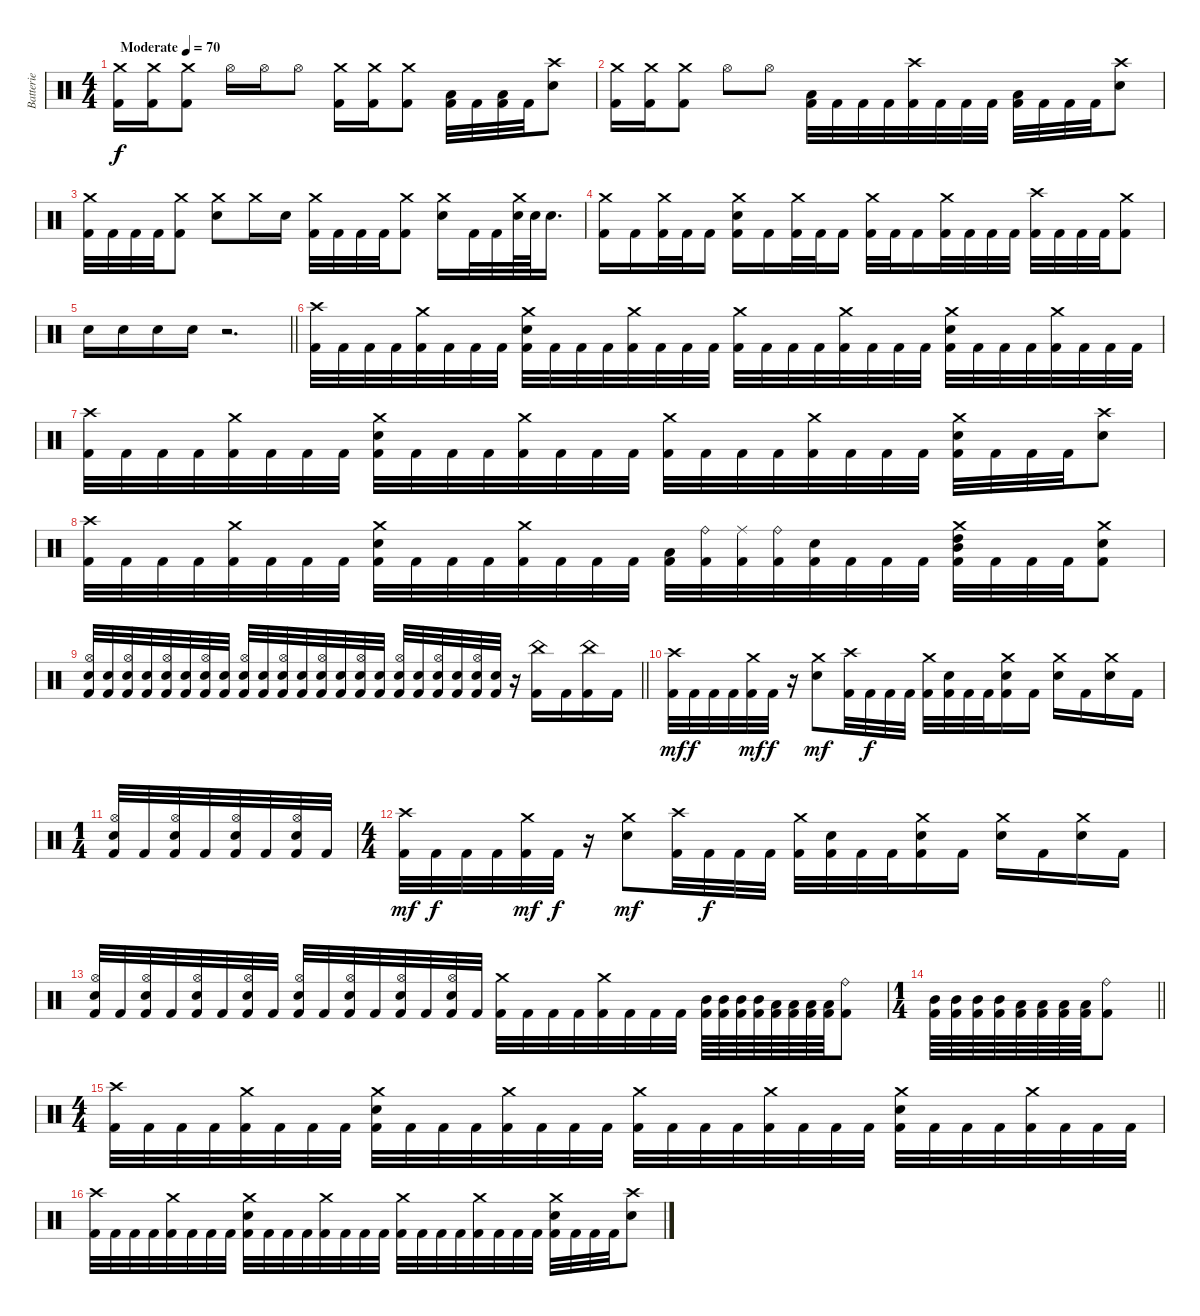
\track ("Batterie" "Batterie") {instrument percussion}
\staff {score}
\articulation defaults
\ts (4 4)
\tempo (70 "Moderate")
\clef neutral
\ks c
("Crash medium (hit)" "Kick (hit) 2").16{dy f} ("Crash medium (hit)" "Kick (hit) 2").16 ("Crash medium (hit)" "Kick (hit) 2").8 "Hi-Hat (open)".16 "Hi-Hat (open)".16 "Hi-Hat (open)".8 ("Crash medium (hit)" "Kick (hit) 2").16 ("Crash medium (hit)" "Kick (hit) 2").16 ("Crash medium (hit)" "Kick (hit) 2").8 ("Low Tom (hit)" "Kick (hit) 2").32 "Kick (hit) 2".32 ("Low Tom (hit)" "Kick (hit) 2").32 "Kick (hit) 2".32 ("Crash high (hit)" "Snare (hit) 2").8 |
("Crash medium (hit)" "Kick (hit) 2").16 ("Crash medium (hit)" "Kick (hit) 2").16 ("Crash medium (hit)" "Kick (hit) 2").8 "Hi-Hat (open)".8 "Hi-Hat (open)".8 ("Low Tom (hit)" "Kick (hit) 2").32 "Kick (hit) 2".32 "Kick (hit) 2".32 "Kick (hit) 2".32 ("Crash high (hit)" "Kick (hit) 2").32 "Kick (hit) 2".32 "Kick (hit) 2".32 "Kick (hit) 2".32 ("Low Tom (hit)" "Kick (hit) 2").32 "Kick (hit) 2".32 "Kick (hit) 2".32 "Kick (hit) 2".32 ("Crash high (hit)" "Snare (hit) 2").8 |
("Crash medium (hit)" "Kick (hit) 2").32 "Kick (hit) 2".32 "Kick (hit) 2".32 "Kick (hit) 2".32 ("Crash medium (hit)" "Kick (hit) 2").8 ("Crash medium (hit)" "Snare (hit) 2").8 "Crash medium (hit)".16 "Snare (hit) 2".16 ("Crash medium (hit)" "Kick (hit) 2").32 "Kick (hit) 2".32 "Kick (hit) 2".32 "Kick (hit) 2".32 ("Crash medium (hit)" "Kick (hit) 2").8 ("Crash medium (hit)" "Snare (hit) 2").16 "Kick (hit) 2".32 "Kick (hit) 2".32 ("Crash medium (hit)" "Snare (hit) 2").64 "Snare (hit) 2".64 "Snare (hit) 2".16{d} |
("Crash medium (hit)" "Kick (hit) 2").16 "Kick (hit) 2".16 ("Crash medium (hit)" "Kick (hit) 2").32 "Kick (hit) 2".32 "Kick (hit) 2".16 ("Crash medium (hit)" "Snare (hit) 2" "Kick (hit) 2").16 "Kick (hit) 2".16 ("Crash medium (hit)" "Kick (hit) 2").32 "Kick (hit) 2".32 "Kick (hit) 2".16 ("Crash medium (hit)" "Kick (hit) 2").32 "Kick (hit) 2".32 "Kick (hit) 2".16 ("Crash medium (hit)" "Kick (hit) 2").32 "Kick (hit) 2".32 "Kick (hit) 2".32 "Kick (hit) 2".32 ("Crash high (hit)" "Kick (hit) 2").32 "Kick (hit) 2".32 "Kick (hit) 2".32 "Kick (hit) 2".32 ("Crash medium (hit)" "Kick (hit) 2").8 |
\barLineRight lightlight "Snare (hit) 2".16 "Snare (hit) 2".16 "Snare (hit) 2".16 "Snare (hit) 2".16
r.2{d} |
\section ("" "")
("Crash high (hit)" "Kick (hit) 2").32 "Kick (hit) 2".32 "Kick (hit) 2".32 "Kick (hit) 2".32 ("Crash medium (hit)" "Kick (hit) 2").32 "Kick (hit) 2".32 "Kick (hit) 2".32 "Kick (hit) 2".32 ("Crash medium (hit)" "Snare (hit) 2" "Kick (hit) 2").32 "Kick (hit) 2".32 "Kick (hit) 2".32 "Kick (hit) 2".32 ("Crash medium (hit)" "Kick (hit) 2").32 "Kick (hit) 2".32 "Kick (hit) 2".32 "Kick (hit) 2".32 ("Crash medium (hit)" "Kick (hit) 2").32 "Kick (hit) 2".32 "Kick (hit) 2".32 "Kick (hit) 2".32 ("Crash medium (hit)" "Kick (hit) 2").32 "Kick (hit) 2".32 "Kick (hit) 2".32 "Kick (hit) 2".32 ("Crash medium (hit)" "Snare (hit) 2" "Kick (hit) 2").32 "Kick (hit) 2".32 "Kick (hit) 2".32 "Kick (hit) 2".32 ("Crash medium (hit)" "Kick (hit) 2").32 "Kick (hit) 2".32 "Kick (hit) 2".32 "Kick (hit) 2".32 |
("Crash high (hit)" "Kick (hit) 2").32 "Kick (hit) 2".32 "Kick (hit) 2".32 "Kick (hit) 2".32 ("Crash medium (hit)" "Kick (hit) 2").32 "Kick (hit) 2".32 "Kick (hit) 2".32 "Kick (hit) 2".32 ("Crash medium (hit)" "Snare (hit) 2" "Kick (hit) 2").32 "Kick (hit) 2".32 "Kick (hit) 2".32 "Kick (hit) 2".32 ("Crash medium (hit)" "Kick (hit) 2").32 "Kick (hit) 2".32 "Kick (hit) 2".32 "Kick (hit) 2".32 ("Crash medium (hit)" "Kick (hit) 2").32 "Kick (hit) 2".32 "Kick (hit) 2".32 "Kick (hit) 2".32 ("Crash medium (hit)" "Kick (hit) 2").32 "Kick (hit) 2".32 "Kick (hit) 2".32 "Kick (hit) 2".32 ("Crash medium (hit)" "Snare (hit) 2" "Kick (hit) 2").32 "Kick (hit) 2".32 "Kick (hit) 2".32 "Kick (hit) 2".32 ("Crash high (hit)" "Snare (hit) 2").8 |
("Crash high (hit)" "Kick (hit) 2").32 "Kick (hit) 2".32 "Kick (hit) 2".32 "Kick (hit) 2".32 ("Crash medium (hit)" "Kick (hit) 2").32 "Kick (hit) 2".32 "Kick (hit) 2".32 "Kick (hit) 2".32 ("Crash medium (hit)" "Snare (hit) 2" "Kick (hit) 2").32 "Kick (hit) 2".32 "Kick (hit) 2".32 "Kick (hit) 2".32 ("Crash medium (hit)" "Kick (hit) 2").32 "Kick (hit) 2".32 "Kick (hit) 2".32 "Kick (hit) 2".32 ("Low Tom (hit)" "Kick (hit) 2").32 ("Ride (bell)" "Kick (hit) 2").32 ("Ride (middle)" "Kick (hit) 2").32 ("Ride (bell)" "Kick (hit) 2").32 ("Snare (hit) 2" "Kick (hit) 2").32 "Kick (hit) 2".32 "Kick (hit) 2".32 "Kick (hit) 2".32 ("Crash medium (hit)" "High Tom (hit)" "Mid Tom (hit)" "Kick (hit) 2").32 "Kick (hit) 2".32 "Kick (hit) 2".32 "Kick (hit) 2".32 ("Crash medium (hit)" "Snare (hit) 2" "Kick (hit) 2").8 |
\barLineRight lightlight
("Hi-Hat (open)" "Snare (hit) 2" "Kick (hit) 2").32 ("Snare (hit) 2" "Kick (hit) 2").32 ("Hi-Hat (open)" "Snare (hit) 2" "Kick (hit) 2").32 ("Snare (hit) 2" "Kick (hit) 2").32 ("Hi-Hat (open)" "Snare (hit) 2" "Kick (hit) 2").32 ("Snare (hit) 2" "Kick (hit) 2").32 ("Hi-Hat (open)" "Snare (hit) 2" "Kick (hit) 2").32 ("Snare (hit) 2" "Kick (hit) 2").32 ("Hi-Hat (open)" "Snare (hit) 2" "Kick (hit) 2").32 ("Snare (hit) 2" "Kick (hit) 2").32 ("Hi-Hat (open)" "Snare (hit) 2" "Kick (hit) 2").32 ("Snare (hit) 2" "Kick (hit) 2").32 ("Hi-Hat (open)" "Snare (hit) 2" "Kick (hit) 2").32 ("Snare (hit) 2" "Kick (hit) 2").32 ("Hi-Hat (open)" "Snare (hit) 2" "Kick (hit) 2").32 ("Snare (hit) 2" "Kick (hit) 2").32 ("Hi-Hat (open)" "Snare (hit) 2" "Kick (hit) 2").32 ("Snare (hit) 2" "Kick (hit) 2").32 ("Hi-Hat (open)" "Snare (hit) 2" "Kick (hit) 2").32 ("Snare (hit) 2" "Kick (hit) 2").32 ("Hi-Hat (open)" "Snare (hit) 2" "Kick (hit) 2").32 ("Snare (hit) 2" "Kick (hit) 2").32 r.16 ("China (hit)" "Kick (hit) 2").16 "Kick (hit) 2".16 ("China (hit)" "Kick (hit) 2").16 "Kick (hit) 2".16 |
\section ("" "")
("Crash high (hit)" "Kick (hit) 2").32{dy mf} "Kick (hit) 2".32{dy f} "Kick (hit) 2".32 "Kick (hit) 2".32 ("Crash medium (hit)" "Kick (hit) 2").32{dy mf} "Kick (hit) 2".32{dy f} r.16 ("Crash medium (hit)" "Snare (hit) 2").8{dy mf} ("Crash high (hit)" "Kick (hit) 2").32 "Kick (hit) 2".32{dy f} "Kick (hit) 2".32 "Kick (hit) 2".32 ("Crash medium (hit)" "Kick (hit) 2").32 ("Snare (hit) 2" "Kick (hit) 2").32 "Kick (hit) 2".32 "Kick (hit) 2".32 ("Crash medium (hit)" "Snare (hit) 2" "Kick (hit) 2").16 "Kick (hit) 2".16 ("Crash medium (hit)" "Snare (hit) 2").16 "Kick (hit) 2".16 ("Crash medium (hit)" "Snare (hit) 2").16 "Kick (hit) 2".16 |
\ts (1 4)
("Hi-Hat (open)" "Snare (hit) 2" "Kick (hit) 2").32 "Kick (hit) 2".32 ("Hi-Hat (open)" "Snare (hit) 2" "Kick (hit) 2").32 "Kick (hit) 2".32 ("Hi-Hat (open)" "Snare (hit) 2" "Kick (hit) 2").32 "Kick (hit) 2".32 ("Hi-Hat (open)" "Snare (hit) 2" "Kick (hit) 2").32 "Kick (hit) 2".32 |
\ts (4 4)
("Crash high (hit)" "Kick (hit) 2").32{dy mf} "Kick (hit) 2".32{dy f} "Kick (hit) 2".32 "Kick (hit) 2".32 ("Crash medium (hit)" "Kick (hit) 2").32{dy mf} "Kick (hit) 2".32{dy f} r.16 ("Crash medium (hit)" "Snare (hit) 2").8{dy mf} ("Crash high (hit)" "Kick (hit) 2").32 "Kick (hit) 2".32{dy f} "Kick (hit) 2".32 "Kick (hit) 2".32 ("Crash medium (hit)" "Kick (hit) 2").32 ("Snare (hit) 2" "Kick (hit) 2").32 "Kick (hit) 2".32 "Kick (hit) 2".32 ("Crash medium (hit)" "Snare (hit) 2" "Kick (hit) 2").16 "Kick (hit) 2".16 ("Crash medium (hit)" "Snare (hit) 2").16 "Kick (hit) 2".16 ("Crash medium (hit)" "Snare (hit) 2").16 "Kick (hit) 2".16 |
("Hi-Hat (open)" "Snare (hit) 2" "Kick (hit) 2").32 "Kick (hit) 2".32 ("Hi-Hat (open)" "Snare (hit) 2" "Kick (hit) 2").32 "Kick (hit) 2".32 ("Hi-Hat (open)" "Snare (hit) 2" "Kick (hit) 2").32 "Kick (hit) 2".32 ("Hi-Hat (open)" "Snare (hit) 2" "Kick (hit) 2").32 "Kick (hit) 2".32 ("Hi-Hat (open)" "Snare (hit) 2" "Kick (hit) 2").32 "Kick (hit) 2".32 ("Hi-Hat (open)" "Snare (hit) 2" "Kick (hit) 2").32 "Kick (hit) 2".32 ("Hi-Hat (open)" "Snare (hit) 2" "Kick (hit) 2").32 "Kick (hit) 2".32 ("Hi-Hat (open)" "Snare (hit) 2" "Kick (hit) 2").32 "Kick (hit) 2".32 ("Crash medium (hit)" "Kick (hit) 2").32 "Kick (hit) 2".32 "Kick (hit) 2".32 "Kick (hit) 2".32 ("Crash medium (hit)" "Kick (hit) 2").32 "Kick (hit) 2".32 "Kick (hit) 2".32 "Kick (hit) 2".32 ("Mid Tom (hit)" "Kick (hit) 2").64 ("Mid Tom (hit)" "Kick (hit) 2").64 ("Mid Tom (hit)" "Kick (hit) 2").64 ("Mid Tom (hit)" "Kick (hit) 2").64 ("Low Tom (hit)" "Kick (hit) 2").64 ("Low Tom (hit)" "Kick (hit) 2").64 ("Low Tom (hit)" "Kick (hit) 2").64 ("Low Tom (hit)" "Kick (hit) 2").64 ("Ride (bell)" "Kick (hit) 2").8 |
\ts (1 4)
\barLineRight lightlight
("Mid Tom (hit)" "Kick (hit) 2").64 ("Mid Tom (hit)" "Kick (hit) 2").64 ("Mid Tom (hit)" "Kick (hit) 2").64 ("Mid Tom (hit)" "Kick (hit) 2").64 ("Low Tom (hit)" "Kick (hit) 2").64 ("Low Tom (hit)" "Kick (hit) 2").64 ("Low Tom (hit)" "Kick (hit) 2").64 ("Low Tom (hit)" "Kick (hit) 2").64 ("Ride (bell)" "Kick (hit) 2").8 |
\ts (4 4)
\section ("" "")
("Crash high (hit)" "Kick (hit) 2").32 "Kick (hit) 2".32 "Kick (hit) 2".32 "Kick (hit) 2".32 ("Crash medium (hit)" "Kick (hit) 2").32 "Kick (hit) 2".32 "Kick (hit) 2".32 "Kick (hit) 2".32 ("Crash medium (hit)" "Snare (hit) 2" "Kick (hit) 2").32 "Kick (hit) 2".32 "Kick (hit) 2".32 "Kick (hit) 2".32 ("Crash medium (hit)" "Kick (hit) 2").32 "Kick (hit) 2".32 "Kick (hit) 2".32 "Kick (hit) 2".32 ("Crash medium (hit)" "Kick (hit) 2").32 "Kick (hit) 2".32 "Kick (hit) 2".32 "Kick (hit) 2".32 ("Crash medium (hit)" "Kick (hit) 2").32 "Kick (hit) 2".32 "Kick (hit) 2".32 "Kick (hit) 2".32 ("Crash medium (hit)" "Snare (hit) 2" "Kick (hit) 2").32 "Kick (hit) 2".32 "Kick (hit) 2".32 "Kick (hit) 2".32 ("Crash medium (hit)" "Kick (hit) 2").32 "Kick (hit) 2".32 "Kick (hit) 2".32 "Kick (hit) 2".32 |
("Crash high (hit)" "Kick (hit) 2").32 "Kick (hit) 2".32 "Kick (hit) 2".32 "Kick (hit) 2".32 ("Crash medium (hit)" "Kick (hit) 2").32 "Kick (hit) 2".32 "Kick (hit) 2".32 "Kick (hit) 2".32 ("Crash medium (hit)" "Snare (hit) 2" "Kick (hit) 2").32 "Kick (hit) 2".32 "Kick (hit) 2".32 "Kick (hit) 2".32 ("Crash medium (hit)" "Kick (hit) 2").32 "Kick (hit) 2".32 "Kick (hit) 2".32 "Kick (hit) 2".32 ("Crash medium (hit)" "Kick (hit) 2").32 "Kick (hit) 2".32 "Kick (hit) 2".32 "Kick (hit) 2".32 ("Crash medium (hit)" "Kick (hit) 2").32 "Kick (hit) 2".32 "Kick (hit) 2".32 "Kick (hit) 2".32 ("Crash medium (hit)" "Snare (hit) 2" "Kick (hit) 2").32 "Kick (hit) 2".32 "Kick (hit) 2".32 "Kick (hit) 2".32 ("Crash high (hit)" "Snare (hit) 2").8
